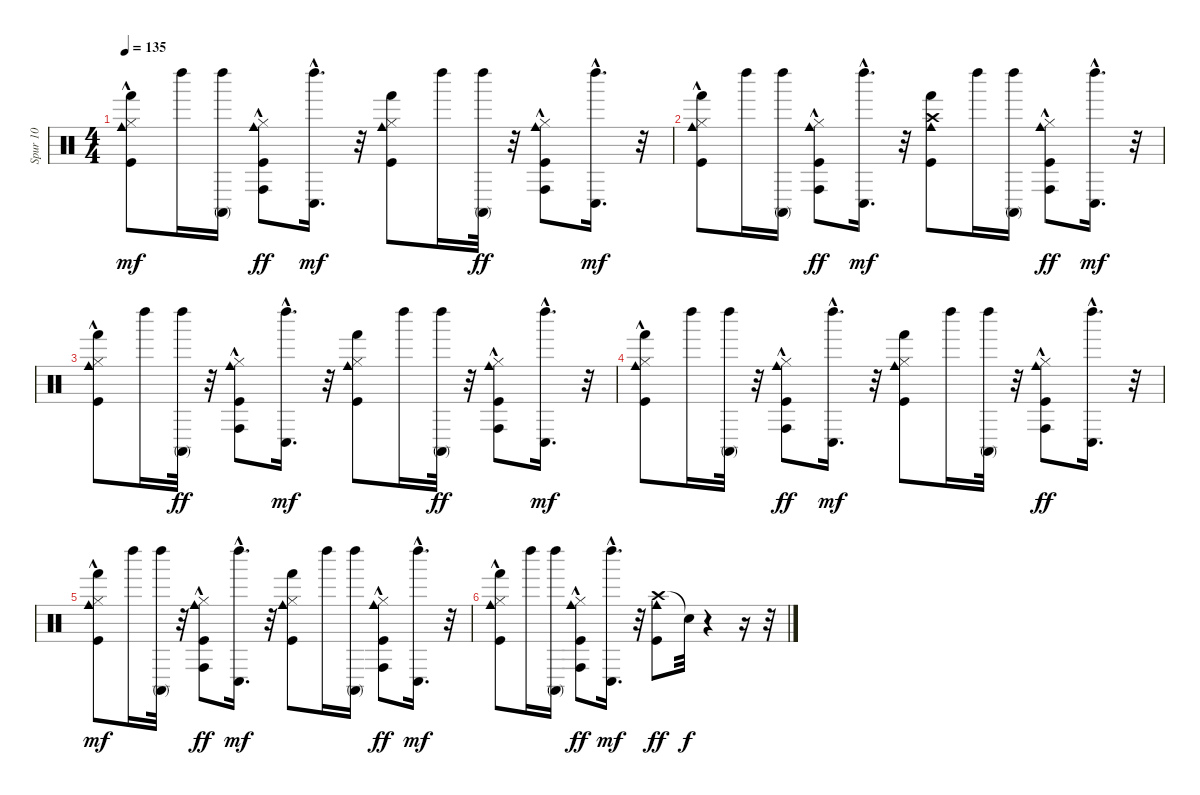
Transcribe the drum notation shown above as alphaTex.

\track ("Spur 10" "Spur 10") {instrument percussion}
\staff {score}
\articulation defaults
\ts (4 4)
\tempo 135
\clef neutral
\ks c
("Kick (hit)" "Hi-Hat (closed)" "Cowbell medium (hit)" "Hand (hit)"{hac}).8{dy mf} "Left Maraca (hit)".16 ("Conga high (mute)" "Left Maraca (hit)").16 ("Hi-Hat (closed)" "Kick (hit)"{hac} "Cowbell medium (hit)" "Conga high (hit)"{hac}).8{dy ff} ("Conga low (hit)"{hac} "Left Maraca (hit)").16{d dy mf} r.32 ("Kick (hit)" "Hi-Hat (closed)" "Cowbell medium (hit)" "Hand (hit)").8 "Left Maraca (hit)".16 ("Left Maraca (hit)" "Conga high (mute)").32{dy ff} r.32 ("Hi-Hat (closed)" "Kick (hit)" "Cowbell medium (hit)" "Conga high (hit)"{hac}).8 ("Conga low (hit)"{hac} "Left Maraca (hit)").16{d dy mf} r.32 |
("Kick (hit)" "Hi-Hat (closed)" "Cowbell medium (hit)" "Hand (hit)"{hac}).8 "Left Maraca (hit)".16 ("Conga high (mute)" "Left Maraca (hit)").16 ("Hi-Hat (closed)" "Kick (hit)"{hac} "Cowbell medium (hit)" "Conga high (hit)"{hac}).8{dy ff} ("Conga low (hit)"{hac} "Left Maraca (hit)").16{d dy mf} r.32 ("Kick (hit)" "Crash high (hit)" "Cowbell medium (hit)" "Hand (hit)").8 "Left Maraca (hit)".16 ("Conga high (mute)" "Left Maraca (hit)").16 ("Kick (hit)" "Hi-Hat (closed)" "Cowbell medium (hit)" "Conga high (hit)"{hac}).8{dy ff} ("Conga low (hit)"{hac} "Left Maraca (hit)").16{d dy mf} r.32 |
("Kick (hit)" "Hi-Hat (closed)" "Cowbell medium (hit)" "Hand (hit)"{hac}).8 "Left Maraca (hit)".16 ("Left Maraca (hit)" "Conga high (mute)").32{dy ff} r.32 ("Kick (hit)"{hac} "Hi-Hat (closed)" "Cowbell medium (hit)" "Conga high (hit)"{hac}).8 ("Conga low (hit)"{hac} "Left Maraca (hit)").16{d dy mf} r.32 ("Kick (hit)" "Hi-Hat (closed)" "Cowbell medium (hit)" "Hand (hit)").8 "Left Maraca (hit)".16 ("Left Maraca (hit)" "Conga high (mute)").32{dy ff} r.32 ("Hi-Hat (closed)" "Kick (hit)" "Cowbell medium (hit)" "Conga high (hit)"{hac}).8 ("Conga low (hit)"{hac} "Left Maraca (hit)").16{d dy mf} r.32 |
("Hi-Hat (closed)" "Kick (hit)" "Cowbell medium (hit)" "Hand (hit)"{hac}).8 "Left Maraca (hit)".16 ("Conga high (mute)" "Left Maraca (hit)").32 r.32 ("Kick (hit)"{hac} "Hi-Hat (closed)" "Cowbell medium (hit)" "Conga high (hit)"{hac}).8{dy ff} ("Conga low (hit)"{hac} "Left Maraca (hit)").16{d dy mf} r.32 ("Hi-Hat (closed)" "Kick (hit)" "Cowbell medium (hit)" "Hand (hit)").8 "Left Maraca (hit)".16 ("Conga high (mute)" "Left Maraca (hit)").32 r.32 ("Hi-Hat (closed)" "Cowbell medium (hit)" "Kick (hit)" "Conga high (hit)"{hac}).8{dy ff} ("Left Maraca (hit)" "Conga low (hit)"{hac}).16{d} r.32 |
("Kick (hit)" "Hi-Hat (closed)" "Cowbell medium (hit)" "Hand (hit)"{hac}).8{dy mf} "Left Maraca (hit)".16 ("Conga high (mute)" "Left Maraca (hit)").32 r.32 ("Hi-Hat (closed)" "Kick (hit)"{hac} "Cowbell medium (hit)" "Conga high (hit)"{hac}).8{dy ff} ("Conga low (hit)"{hac} "Left Maraca (hit)").16{d dy mf} r.32 ("Kick (hit)" "Hi-Hat (closed)" "Cowbell medium (hit)" "Hand (hit)").8 "Left Maraca (hit)".16 ("Conga high (mute)" "Left Maraca (hit)").16 ("Kick (hit)" "Hi-Hat (closed)" "Cowbell medium (hit)" "Conga high (hit)"{hac}).8{dy ff} ("Conga low (hit)"{hac} "Left Maraca (hit)").16{d dy mf} r.32 |
("Kick (hit)" "Hi-Hat (closed)" "Cowbell medium (hit)" "Hand (hit)"{hac}).8 "Left Maraca (hit)".16 ("Conga high (mute)" "Left Maraca (hit)").16 ("Kick (hit)"{hac} "Hi-Hat (closed)" "Cowbell medium (hit)" "Conga high (hit)"{hac}).8{dy ff} ("Conga low (hit)"{hac} "Left Maraca (hit)").16{d dy mf} r.32 ("Crash high (hit)" "Cowbell medium (hit)" "Kick (hit)").8{dy ff} "Snare (hit)"{t}.32{dy f} r.4 r.16 r.32
